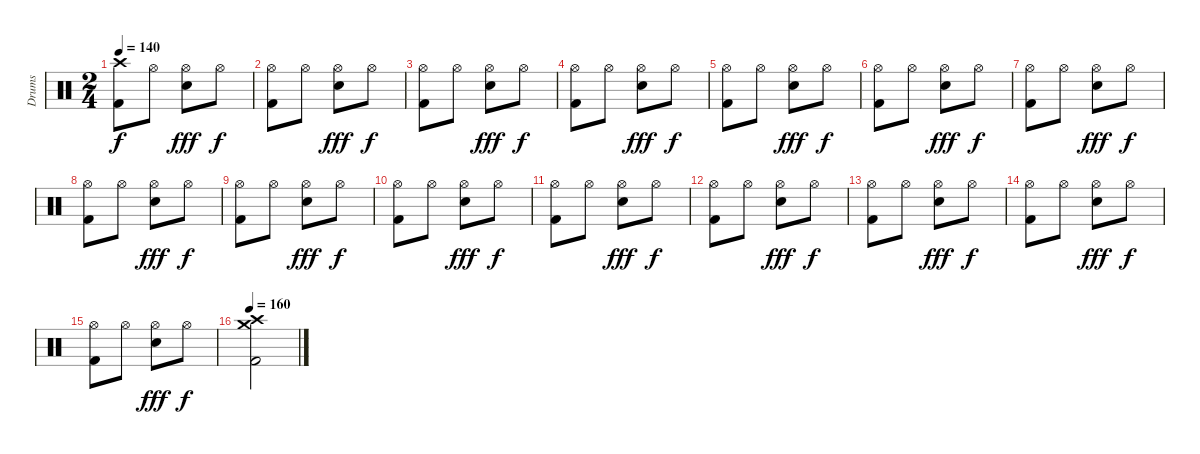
\track ("Drums" "Drums") {instrument percussion}
\staff {score}
\articulation defaults
\ts (2 4)
\tempo 140
\clef neutral
\ks c
("Crash high (hit)" "Kick (hit) 2").8{dy f} "Hi-Hat (open)".8 ("Hi-Hat (open)" "Snare (hit) 2").8{dy fff} "Hi-Hat (open)".8{dy f} |
("Hi-Hat (open)" "Kick (hit) 2").8 "Hi-Hat (open)".8 ("Hi-Hat (open)" "Snare (hit) 2").8{dy fff} "Hi-Hat (open)".8{dy f} |
("Hi-Hat (open)" "Kick (hit) 2").8 "Hi-Hat (open)".8 ("Hi-Hat (open)" "Snare (hit) 2").8{dy fff} "Hi-Hat (open)".8{dy f} |
("Hi-Hat (open)" "Kick (hit) 2").8 "Hi-Hat (open)".8 ("Hi-Hat (open)" "Snare (hit) 2").8{dy fff} "Hi-Hat (open)".8{dy f} |
("Hi-Hat (open)" "Kick (hit) 2").8 "Hi-Hat (open)".8 ("Hi-Hat (open)" "Snare (hit) 2").8{dy fff} "Hi-Hat (open)".8{dy f} |
("Hi-Hat (open)" "Kick (hit) 2").8 "Hi-Hat (open)".8 ("Hi-Hat (open)" "Snare (hit) 2").8{dy fff} "Hi-Hat (open)".8{dy f} |
("Hi-Hat (open)" "Kick (hit) 2").8 "Hi-Hat (open)".8 ("Hi-Hat (open)" "Snare (hit) 2").8{dy fff} "Hi-Hat (open)".8{dy f} |
("Hi-Hat (open)" "Kick (hit) 2").8 "Hi-Hat (open)".8 ("Hi-Hat (open)" "Snare (hit) 2").8{dy fff} "Hi-Hat (open)".8{dy f} |
("Hi-Hat (open)" "Kick (hit) 2").8 "Hi-Hat (open)".8 ("Hi-Hat (open)" "Snare (hit) 2").8{dy fff} "Hi-Hat (open)".8{dy f} |
("Hi-Hat (open)" "Kick (hit) 2").8 "Hi-Hat (open)".8 ("Hi-Hat (open)" "Snare (hit) 2").8{dy fff} "Hi-Hat (open)".8{dy f} |
("Hi-Hat (open)" "Kick (hit) 2").8 "Hi-Hat (open)".8 ("Hi-Hat (open)" "Snare (hit) 2").8{dy fff} "Hi-Hat (open)".8{dy f} |
("Hi-Hat (open)" "Kick (hit) 2").8 "Hi-Hat (open)".8 ("Hi-Hat (open)" "Snare (hit) 2").8{dy fff} "Hi-Hat (open)".8{dy f} |
("Hi-Hat (open)" "Kick (hit) 2").8 "Hi-Hat (open)".8 ("Hi-Hat (open)" "Snare (hit) 2").8{dy fff} "Hi-Hat (open)".8{dy f} |
("Hi-Hat (open)" "Kick (hit) 2").8 "Hi-Hat (open)".8 ("Hi-Hat (open)" "Snare (hit) 2").8{dy fff} "Hi-Hat (open)".8{dy f} |
("Hi-Hat (open)" "Kick (hit) 2").8 "Hi-Hat (open)".8 ("Hi-Hat (open)" "Snare (hit) 2").8{dy fff} "Hi-Hat (open)".8{dy f} |
\tempo 160
("Crash high (hit)" "Crash medium (hit)" "Kick (hit) 2").2
